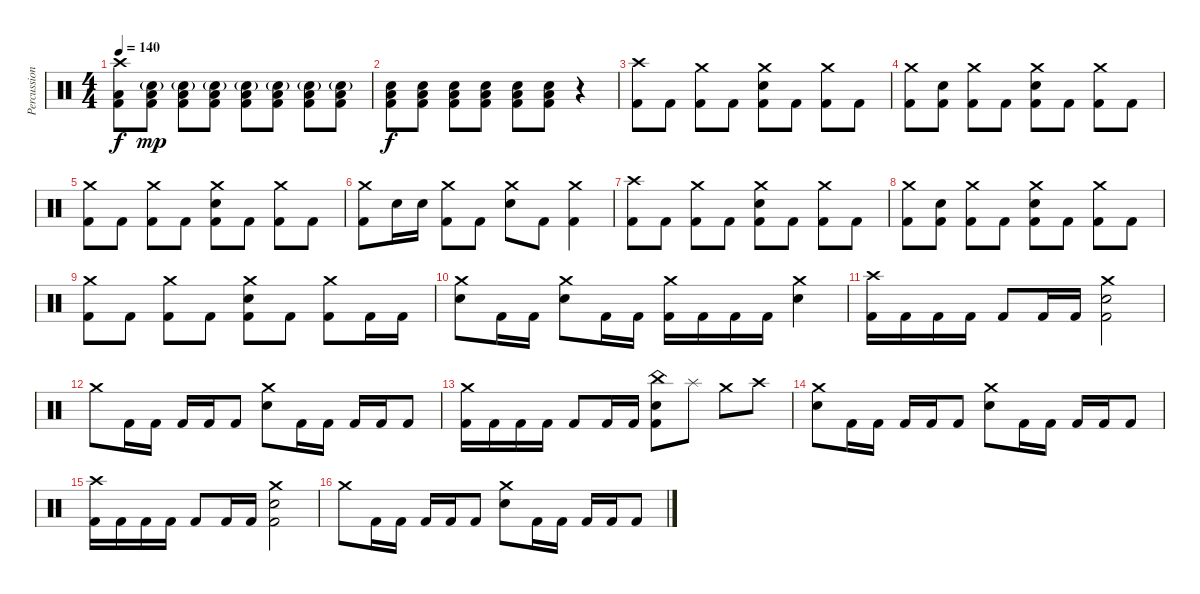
\track ("Percussion" "Percussion") {instrument percussion}
\staff {score}
\articulation defaults
\ts (4 4)
\tempo 140
\clef neutral
\ks c
("Crash high (hit)" "Low Floor Tom (hit)" "Kick (hit) 2").8{dy f} ("Electric Snare (hit)"{g} "Low Floor Tom (hit)" "Kick (hit) 2").8{dy mp} ("Electric Snare (hit)"{g} "Low Floor Tom (hit)" "Kick (hit) 2").8 ("Electric Snare (hit)"{g} "Low Floor Tom (hit)" "Kick (hit) 2").8 ("Electric Snare (hit)"{g} "Low Floor Tom (hit)" "Kick (hit) 2").8 ("Electric Snare (hit)"{g} "Low Floor Tom (hit)" "Kick (hit) 2").8 ("Electric Snare (hit)"{g} "Low Floor Tom (hit)" "Kick (hit) 2").8 ("Electric Snare (hit)"{g} "Low Floor Tom (hit)" "Kick (hit) 2").8 |
("Electric Snare (hit)" "Low Floor Tom (hit)" "Kick (hit) 2").8{dy f} ("Electric Snare (hit)" "Low Floor Tom (hit)" "Kick (hit) 2").8 ("Electric Snare (hit)" "Low Floor Tom (hit)" "Kick (hit) 2").8 ("Electric Snare (hit)" "Low Floor Tom (hit)" "Kick (hit) 2").8 ("Electric Snare (hit)" "Low Floor Tom (hit)" "Kick (hit) 2").8 ("Electric Snare (hit)" "Low Floor Tom (hit)" "Kick (hit) 2").8 r.4 |
("Crash high (hit)" "Kick (hit) 2").8 "Kick (hit) 2".8 ("Crash medium (hit)" "Kick (hit) 2").8 "Kick (hit) 2".8 ("Crash medium (hit)" "Electric Snare (hit)" "Kick (hit) 2").8 "Kick (hit) 2".8 ("Crash medium (hit)" "Kick (hit) 2").8 "Kick (hit) 2".8 |
("Crash medium (hit)" "Kick (hit) 2").8 ("Electric Snare (hit)" "Kick (hit) 2").8 ("Crash medium (hit)" "Kick (hit) 2").8 "Kick (hit) 2".8 ("Crash medium (hit)" "Electric Snare (hit)" "Kick (hit) 2").8 "Kick (hit) 2".8 ("Crash medium (hit)" "Kick (hit) 2").8 "Kick (hit) 2".8 |
("Crash medium (hit)" "Kick (hit) 2").8 "Kick (hit) 2".8 ("Crash medium (hit)" "Kick (hit) 2").8 "Kick (hit) 2".8 ("Crash medium (hit)" "Electric Snare (hit)" "Kick (hit) 2").8 "Kick (hit) 2".8 ("Crash medium (hit)" "Kick (hit) 2").8 "Kick (hit) 2".8 |
("Crash medium (hit)" "Kick (hit) 2").8 "Electric Snare (hit)".16 "Electric Snare (hit)".16 ("Crash medium (hit)" "Kick (hit) 2").8 "Kick (hit) 2".8 ("Crash medium (hit)" "Electric Snare (hit)").8 "Kick (hit) 2".8 ("Crash medium (hit)" "Kick (hit) 2").4 |
("Crash high (hit)" "Kick (hit) 2").8 "Kick (hit) 2".8 ("Crash medium (hit)" "Kick (hit) 2").8 "Kick (hit) 2".8 ("Crash medium (hit)" "Electric Snare (hit)" "Kick (hit) 2").8 "Kick (hit) 2".8 ("Crash medium (hit)" "Kick (hit) 2").8 "Kick (hit) 2".8 |
("Crash medium (hit)" "Kick (hit) 2").8 ("Electric Snare (hit)" "Kick (hit) 2").8 ("Crash medium (hit)" "Kick (hit) 2").8 "Kick (hit) 2".8 ("Crash medium (hit)" "Electric Snare (hit)" "Kick (hit) 2").8 "Kick (hit) 2".8 ("Crash medium (hit)" "Kick (hit) 2").8 "Kick (hit) 2".8 |
("Crash medium (hit)" "Kick (hit) 2").8 "Kick (hit) 2".8 ("Crash medium (hit)" "Kick (hit) 2").8 "Kick (hit) 2".8 ("Crash medium (hit)" "Electric Snare (hit)" "Kick (hit) 2").8 "Kick (hit) 2".8 ("Crash medium (hit)" "Kick (hit) 2").8 "Kick (hit) 2".16 "Kick (hit) 2".16 |
("Crash medium (hit)" "Electric Snare (hit)").8 "Kick (hit) 2".16 "Kick (hit) 2".16 ("Crash medium (hit)" "Electric Snare (hit)").8 "Kick (hit) 2".16 "Kick (hit) 2".16 ("Crash medium (hit)" "Kick (hit) 2").16 "Kick (hit) 2".16 "Kick (hit) 2".16 "Kick (hit) 2".16 ("Crash medium (hit)" "Electric Snare (hit)").4 |
("Crash high (hit)" "Kick (hit) 2").16 "Kick (hit) 2".16 "Kick (hit) 2".16 "Kick (hit) 2".16 "Kick (hit) 2".8 "Kick (hit) 2".16 "Kick (hit) 2".16 ("Crash medium (hit)" "Electric Snare (hit)" "Kick (hit) 2").2 |
"Crash medium (hit)".8 "Kick (hit) 2".16 "Kick (hit) 2".16 "Kick (hit) 2".16 "Kick (hit) 2".16 "Kick (hit) 2".8 ("Crash medium (hit)" "Electric Snare (hit)").8 "Kick (hit) 2".16 "Kick (hit) 2".16 "Kick (hit) 2".16 "Kick (hit) 2".16 "Kick (hit) 2".8 |
("Crash medium (hit)" "Kick (hit) 2").16 "Kick (hit) 2".16 "Kick (hit) 2".16 "Kick (hit) 2".16 "Kick (hit) 2".8 "Kick (hit) 2".16 "Kick (hit) 2".16 ("China (hit)" "Electric Snare (hit)" "Kick (hit) 2").8 "Splash (hit)".8 "Crash medium (hit)".8 "Crash high (hit)".8 |
("Crash medium (hit)" "Electric Snare (hit)").8 "Kick (hit) 2".16 "Kick (hit) 2".16 "Kick (hit) 2".16 "Kick (hit) 2".16 "Kick (hit) 2".8 ("Crash medium (hit)" "Electric Snare (hit)").8 "Kick (hit) 2".16 "Kick (hit) 2".16 "Kick (hit) 2".16 "Kick (hit) 2".16 "Kick (hit) 2".8 |
("Crash high (hit)" "Kick (hit) 2").16 "Kick (hit) 2".16 "Kick (hit) 2".16 "Kick (hit) 2".16 "Kick (hit) 2".8 "Kick (hit) 2".16 "Kick (hit) 2".16 ("Crash medium (hit)" "Electric Snare (hit)" "Kick (hit) 2").2 |
"Crash medium (hit)".8 "Kick (hit) 2".16 "Kick (hit) 2".16 "Kick (hit) 2".16 "Kick (hit) 2".16 "Kick (hit) 2".8 ("Crash medium (hit)" "Electric Snare (hit)").8 "Kick (hit) 2".16 "Kick (hit) 2".16 "Kick (hit) 2".16 "Kick (hit) 2".16 "Kick (hit) 2".8
